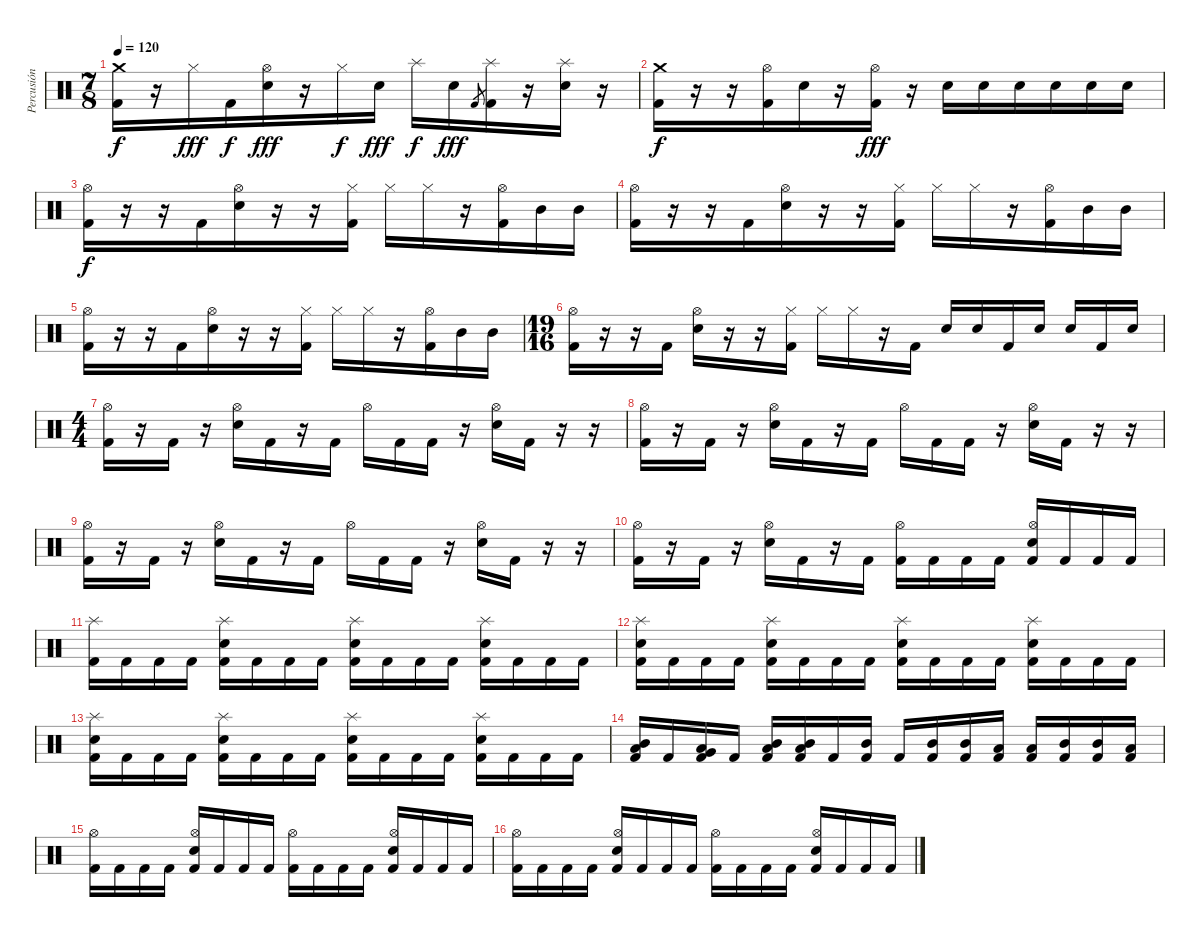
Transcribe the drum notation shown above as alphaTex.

\track ("Percusión" "Percusión") {instrument percussion}
\staff {score}
\articulation defaults
\ts (7 8)
\tempo 120
\clef neutral
\ks c
("Crash medium (hit)" "Kick (hit) 2").16{dy f} r.16 "Hi-Hat (closed)".16{dy fff} "Kick (hit) 2".16{dy f} ("Hi-Hat (open)" "Electric Snare (hit)").16{dy fff} r.16 "Hi-Hat (closed)".16{dy f} "Electric Snare (hit)".16{dy fff} "Splash (hit)".16{dy f} "Electric Snare (hit)".16{dy fff} "Kick (hit) 2".8{gr} ("Splash (hit)" "Kick (hit) 2").16 r.16 ("Splash (hit)" "Electric Snare (hit)").16 r.16 |
("Crash medium (hit)" "Kick (hit) 2").16{dy f} r.16 r.16 ("Hi-Hat (open)" "Kick (hit) 2").16 "Electric Snare (hit)".16 r.16 ("Hi-Hat (open)" "Kick (hit) 2").16{dy fff} r.16 "Electric Snare (hit)".16 "Electric Snare (hit)".16 "Electric Snare (hit)".16 "Electric Snare (hit)".16 "Electric Snare (hit)".16 "Electric Snare (hit)".16 |
("Hi-Hat (open)" "Kick (hit) 2").16{dy f} r.16 r.16 "Kick (hit) 2".16 ("Hi-Hat (open)" "Electric Snare (hit)").16 r.16 r.16 ("Hi-Hat (closed)" "Kick (hit) 2").16 "Hi-Hat (closed)".16 "Hi-Hat (closed)".16 r.16 ("Hi-Hat (open)" "Kick (hit) 2").16 "Mid Tom (hit)".16 "Mid Tom (hit)".16 |
("Hi-Hat (open)" "Kick (hit) 2").16 r.16 r.16 "Kick (hit) 2".16 ("Hi-Hat (open)" "Electric Snare (hit)").16 r.16 r.16 ("Hi-Hat (closed)" "Kick (hit) 2").16 "Hi-Hat (closed)".16 "Hi-Hat (closed)".16 r.16 ("Hi-Hat (open)" "Kick (hit) 2").16 "Mid Tom (hit)".16 "Mid Tom (hit)".16 |
("Hi-Hat (open)" "Kick (hit) 2").16 r.16 r.16 "Kick (hit) 2".16 ("Hi-Hat (open)" "Electric Snare (hit)").16 r.16 r.16 ("Hi-Hat (closed)" "Kick (hit) 2").16 "Hi-Hat (closed)".16 "Hi-Hat (closed)".16 r.16 ("Hi-Hat (open)" "Kick (hit) 2").16 "Mid Tom (hit)".16 "Mid Tom (hit)".16 |
\ts (19 16)
("Hi-Hat (open)" "Kick (hit) 2").16 r.16 r.16 "Kick (hit) 2".16 ("Hi-Hat (open)" "Electric Snare (hit)").16 r.16 r.16 ("Hi-Hat (closed)" "Kick (hit) 2").16 "Hi-Hat (closed)".16 "Hi-Hat (closed)".16 r.16 "Kick (hit) 2".16 "Electric Snare (hit)".16 "Electric Snare (hit)".16 "Kick (hit) 2".16 "Electric Snare (hit)".16 "Electric Snare (hit)".16 "Kick (hit) 2".16 "Electric Snare (hit)".16 |
\ts (4 4)
("Hi-Hat (open)" "Kick (hit) 2").16 r.16 "Kick (hit) 2".16 r.16 ("Hi-Hat (open)" "Electric Snare (hit)").16 "Kick (hit) 2".16 r.16 "Kick (hit) 2".16 "Hi-Hat (open)".16 "Kick (hit) 2".16 "Kick (hit) 2".16 r.16 ("Hi-Hat (open)" "Electric Snare (hit)").16 "Kick (hit) 2".16 r.16 r.16 |
("Hi-Hat (open)" "Kick (hit) 2").16 r.16 "Kick (hit) 2".16 r.16 ("Hi-Hat (open)" "Electric Snare (hit)").16 "Kick (hit) 2".16 r.16 "Kick (hit) 2".16 "Hi-Hat (open)".16 "Kick (hit) 2".16 "Kick (hit) 2".16 r.16 ("Hi-Hat (open)" "Electric Snare (hit)").16 "Kick (hit) 2".16 r.16 r.16 |
("Hi-Hat (open)" "Kick (hit) 2").16 r.16 "Kick (hit) 2".16 r.16 ("Hi-Hat (open)" "Electric Snare (hit)").16 "Kick (hit) 2".16 r.16 "Kick (hit) 2".16 "Hi-Hat (open)".16 "Kick (hit) 2".16 "Kick (hit) 2".16 r.16 ("Hi-Hat (open)" "Electric Snare (hit)").16 "Kick (hit) 2".16 r.16 r.16 |
("Hi-Hat (open)" "Kick (hit) 2").16 r.16 "Kick (hit) 2".16 r.16 ("Hi-Hat (open)" "Electric Snare (hit)").16 "Kick (hit) 2".16 r.16 "Kick (hit) 2".16 ("Hi-Hat (open)" "Kick (hit) 2").16 "Kick (hit) 2".16 "Kick (hit) 2".16 "Kick (hit) 2".16 ("Hi-Hat (open)" "Electric Snare (hit)" "Kick (hit) 2").16 "Kick (hit) 2".16 "Kick (hit) 2".16 "Kick (hit) 2".16 |
("Splash (hit)" "Kick (hit) 2").16 "Kick (hit) 2".16 "Kick (hit) 2".16 "Kick (hit) 2".16 ("Splash (hit)" "Electric Snare (hit)" "Kick (hit) 2").16 "Kick (hit) 2".16 "Kick (hit) 2".16 "Kick (hit) 2".16 ("Splash (hit)" "Electric Snare (hit)" "Kick (hit) 2").16 "Kick (hit) 2".16 "Kick (hit) 2".16 "Kick (hit) 2".16 ("Splash (hit)" "Electric Snare (hit)" "Kick (hit) 2").16 "Kick (hit) 2".16 "Kick (hit) 2".16 "Kick (hit) 2".16 |
("Splash (hit)" "Electric Snare (hit)" "Kick (hit) 2").16 "Kick (hit) 2".16 "Kick (hit) 2".16 "Kick (hit) 2".16 ("Splash (hit)" "Electric Snare (hit)" "Kick (hit) 2").16 "Kick (hit) 2".16 "Kick (hit) 2".16 "Kick (hit) 2".16 ("Splash (hit)" "Electric Snare (hit)" "Kick (hit) 2").16 "Kick (hit) 2".16 "Kick (hit) 2".16 "Kick (hit) 2".16 ("Splash (hit)" "Electric Snare (hit)" "Kick (hit) 2").16 "Kick (hit) 2".16 "Kick (hit) 2".16 "Kick (hit) 2".16 |
("Splash (hit)" "Electric Snare (hit)" "Kick (hit) 2").16 "Kick (hit) 2".16 "Kick (hit) 2".16 "Kick (hit) 2".16 ("Splash (hit)" "Electric Snare (hit)" "Kick (hit) 2").16 "Kick (hit) 2".16 "Kick (hit) 2".16 "Kick (hit) 2".16 ("Splash (hit)" "Electric Snare (hit)" "Kick (hit) 2").16 "Kick (hit) 2".16 "Kick (hit) 2".16 "Kick (hit) 2".16 ("Splash (hit)" "Electric Snare (hit)" "Kick (hit) 2").16 "Kick (hit) 2".16 "Kick (hit) 2".16 "Kick (hit) 2".16 |
("Mid Tom (hit)" "Low Tom (hit)" "Kick (hit) 2").16 "Kick (hit) 2".16 ("Very Low Tom (hit)" "Low Tom (hit)" "Kick (hit) 2").16 "Kick (hit) 2".16 ("Mid Tom (hit)" "Low Tom (hit)" "Kick (hit) 2").16 ("Mid Tom (hit)" "Low Tom (hit)" "Kick (hit) 2").16 "Kick (hit) 2".16 ("Mid Tom (hit)" "Kick (hit) 2").16 "Kick (hit) 2".16 ("Mid Tom (hit)" "Kick (hit) 2").16 ("Mid Tom (hit)" "Kick (hit) 2").16 ("Low Tom (hit)" "Kick (hit) 2").16 ("Low Tom (hit)" "Kick (hit) 2").16 ("Mid Tom (hit)" "Kick (hit) 2").16 ("Mid Tom (hit)" "Kick (hit) 2").16 ("Low Tom (hit)" "Kick (hit) 2").16 |
("Hi-Hat (open)" "Kick (hit) 2").16 "Kick (hit) 2".16 "Kick (hit) 2".16 "Kick (hit) 2".16 ("Hi-Hat (open)" "Electric Snare (hit)" "Kick (hit) 2").16 "Kick (hit) 2".16 "Kick (hit) 2".16 "Kick (hit) 2".16 ("Hi-Hat (open)" "Kick (hit) 2").16 "Kick (hit) 2".16 "Kick (hit) 2".16 "Kick (hit) 2".16 ("Hi-Hat (open)" "Electric Snare (hit)" "Kick (hit) 2").16 "Kick (hit) 2".16 "Kick (hit) 2".16 "Kick (hit) 2".16 |
("Hi-Hat (open)" "Kick (hit) 2").16 "Kick (hit) 2".16 "Kick (hit) 2".16 "Kick (hit) 2".16 ("Hi-Hat (open)" "Electric Snare (hit)" "Kick (hit) 2").16 "Kick (hit) 2".16 "Kick (hit) 2".16 "Kick (hit) 2".16 ("Hi-Hat (open)" "Kick (hit) 2").16 "Kick (hit) 2".16 "Kick (hit) 2".16 "Kick (hit) 2".16 ("Hi-Hat (open)" "Electric Snare (hit)" "Kick (hit) 2").16 "Kick (hit) 2".16 "Kick (hit) 2".16 "Kick (hit) 2".16
